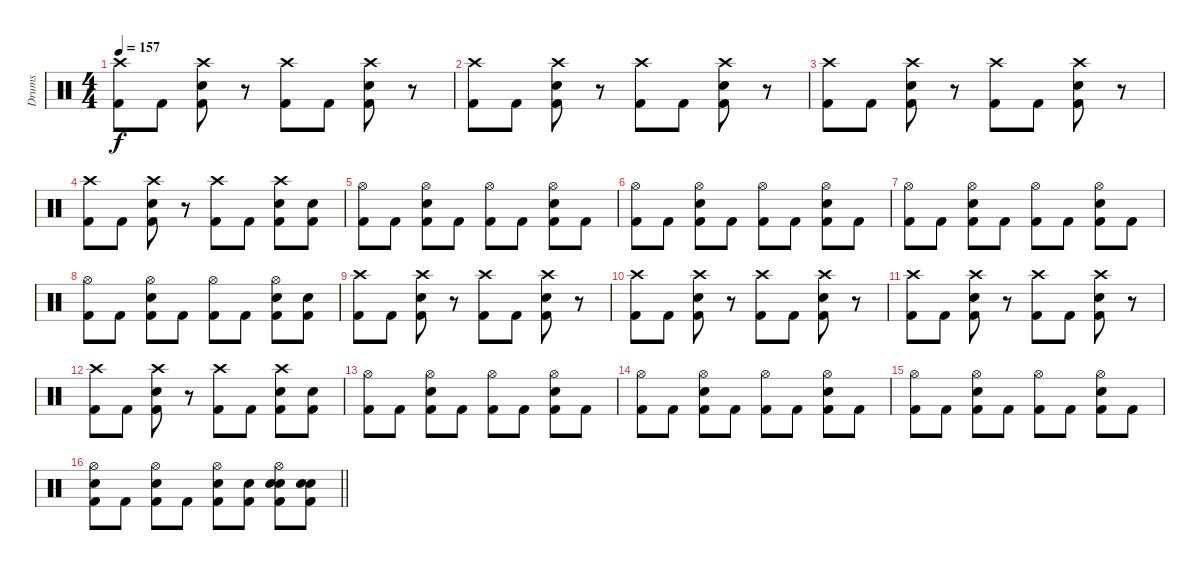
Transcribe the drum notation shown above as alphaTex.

\track ("Drums" "Drums") {instrument percussion}
\staff {score}
\articulation defaults
\ts (4 4)
\tempo 157
\clef neutral
\ks c
("Crash high (hit)" "Kick (hit) 2").8{dy f} "Kick (hit) 2".8 ("Crash high (hit)" "Electric Snare (hit)" "Kick (hit) 2").8 r.8 ("Crash high (hit)" "Kick (hit) 2").8 "Kick (hit) 2".8 ("Crash high (hit)" "Electric Snare (hit)" "Kick (hit) 2").8 r.8 |
("Crash high (hit)" "Kick (hit) 2").8 "Kick (hit) 2".8 ("Crash high (hit)" "Electric Snare (hit)" "Kick (hit) 2").8 r.8 ("Crash high (hit)" "Kick (hit) 2").8 "Kick (hit) 2".8 ("Crash high (hit)" "Electric Snare (hit)" "Kick (hit) 2").8 r.8 |
("Crash high (hit)" "Kick (hit) 2").8 "Kick (hit) 2".8 ("Crash high (hit)" "Electric Snare (hit)" "Kick (hit) 2").8 r.8 ("Crash high (hit)" "Kick (hit) 2").8 "Kick (hit) 2".8 ("Crash high (hit)" "Electric Snare (hit)" "Kick (hit) 2").8 r.8 |
("Crash high (hit)" "Kick (hit) 2").8 "Kick (hit) 2".8 ("Crash high (hit)" "Electric Snare (hit)" "Kick (hit) 2").8 r.8 ("Crash high (hit)" "Kick (hit) 2").8 "Kick (hit) 2".8 ("Crash high (hit)" "Electric Snare (hit)" "Kick (hit) 2").8 ("Electric Snare (hit)" "Kick (hit) 2").8 |
("Hi-Hat (open)" "Kick (hit) 2").8 "Kick (hit) 2".8 ("Hi-Hat (open)" "Electric Snare (hit)" "Kick (hit) 2").8 "Kick (hit) 2".8 ("Hi-Hat (open)" "Kick (hit) 2").8 "Kick (hit) 2".8 ("Hi-Hat (open)" "Kick (hit) 2" "Electric Snare (hit)").8 "Kick (hit) 2".8 |
("Hi-Hat (open)" "Kick (hit) 2").8 "Kick (hit) 2".8 ("Hi-Hat (open)" "Electric Snare (hit)" "Kick (hit) 2").8 "Kick (hit) 2".8 ("Hi-Hat (open)" "Kick (hit) 2").8 "Kick (hit) 2".8 ("Hi-Hat (open)" "Kick (hit) 2" "Electric Snare (hit)").8 "Kick (hit) 2".8 |
("Hi-Hat (open)" "Kick (hit) 2").8 "Kick (hit) 2".8 ("Hi-Hat (open)" "Electric Snare (hit)" "Kick (hit) 2").8 "Kick (hit) 2".8 ("Hi-Hat (open)" "Kick (hit) 2").8 "Kick (hit) 2".8 ("Hi-Hat (open)" "Kick (hit) 2" "Electric Snare (hit)").8 "Kick (hit) 2".8 |
("Hi-Hat (open)" "Kick (hit) 2").8 "Kick (hit) 2".8 ("Hi-Hat (open)" "Electric Snare (hit)" "Kick (hit) 2").8 "Kick (hit) 2".8 ("Hi-Hat (open)" "Kick (hit) 2").8 "Kick (hit) 2".8 ("Hi-Hat (open)" "Kick (hit) 2" "Electric Snare (hit)").8 ("Electric Snare (hit)" "Kick (hit) 2").8 |
("Crash high (hit)" "Kick (hit) 2").8 "Kick (hit) 2".8 ("Crash high (hit)" "Electric Snare (hit)" "Kick (hit) 2").8 r.8 ("Crash high (hit)" "Kick (hit) 2").8 "Kick (hit) 2".8 ("Crash high (hit)" "Electric Snare (hit)" "Kick (hit) 2").8 r.8 |
("Crash high (hit)" "Kick (hit) 2").8 "Kick (hit) 2".8 ("Crash high (hit)" "Electric Snare (hit)" "Kick (hit) 2").8 r.8 ("Crash high (hit)" "Kick (hit) 2").8 "Kick (hit) 2".8 ("Crash high (hit)" "Electric Snare (hit)" "Kick (hit) 2").8 r.8 |
("Crash high (hit)" "Kick (hit) 2").8 "Kick (hit) 2".8 ("Crash high (hit)" "Electric Snare (hit)" "Kick (hit) 2").8 r.8 ("Crash high (hit)" "Kick (hit) 2").8 "Kick (hit) 2".8 ("Crash high (hit)" "Electric Snare (hit)" "Kick (hit) 2").8 r.8 |
("Crash high (hit)" "Kick (hit) 2").8 "Kick (hit) 2".8 ("Crash high (hit)" "Electric Snare (hit)" "Kick (hit) 2").8 r.8 ("Crash high (hit)" "Kick (hit) 2").8 "Kick (hit) 2".8 ("Crash high (hit)" "Electric Snare (hit)" "Kick (hit) 2").8 ("Electric Snare (hit)" "Kick (hit) 2").8 |
("Hi-Hat (open)" "Kick (hit) 2").8 "Kick (hit) 2".8 ("Hi-Hat (open)" "Electric Snare (hit)" "Kick (hit) 2").8 "Kick (hit) 2".8 ("Hi-Hat (open)" "Kick (hit) 2").8 "Kick (hit) 2".8 ("Hi-Hat (open)" "Kick (hit) 2" "Electric Snare (hit)").8 "Kick (hit) 2".8 |
("Hi-Hat (open)" "Kick (hit) 2").8 "Kick (hit) 2".8 ("Hi-Hat (open)" "Electric Snare (hit)" "Kick (hit) 2").8 "Kick (hit) 2".8 ("Hi-Hat (open)" "Kick (hit) 2").8 "Kick (hit) 2".8 ("Hi-Hat (open)" "Kick (hit) 2" "Electric Snare (hit)").8 "Kick (hit) 2".8 |
("Hi-Hat (open)" "Kick (hit) 2").8 "Kick (hit) 2".8 ("Hi-Hat (open)" "Electric Snare (hit)" "Kick (hit) 2").8 "Kick (hit) 2".8 ("Hi-Hat (open)" "Kick (hit) 2").8 "Kick (hit) 2".8 ("Hi-Hat (open)" "Kick (hit) 2" "Electric Snare (hit)").8 "Kick (hit) 2".8 |
\barLineRight lightlight
("Hi-Hat (open)" "Electric Snare (hit)" "Kick (hit) 2").8 "Kick (hit) 2".8 ("Hi-Hat (open)" "Electric Snare (hit)" "Kick (hit) 2").8 "Kick (hit) 2".8 ("Hi-Hat (open)" "Electric Snare (hit)" "Kick (hit) 2").8 ("Electric Snare (hit)" "Kick (hit) 2").8 ("Hi-Hat (open)" "Electric Snare (hit)" "Kick (hit) 2" "Electric Snare (hit)").8 ("Electric Snare (hit)" "Electric Snare (hit)" "Kick (hit) 2").8
